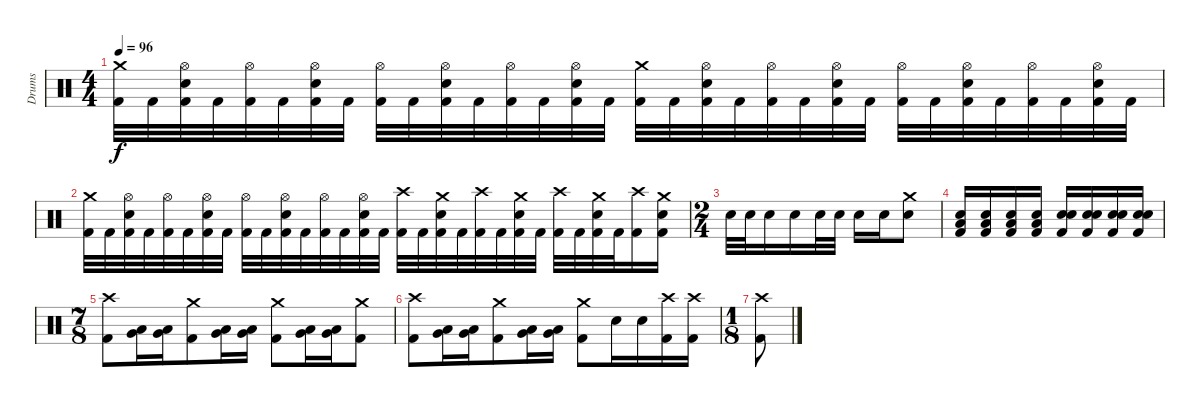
\track ("Drums" "Drums") {instrument percussion}
\staff {score}
\articulation defaults
\ts (4 4)
\tempo 96
\clef neutral
\ks c
("Crash medium (hit)" "Kick (hit) 2").32{dy f} "Kick (hit) 2".32 ("Hi-Hat (open)" "Electric Snare (hit)" "Kick (hit) 2").32 "Kick (hit) 2".32 ("Hi-Hat (open)" "Kick (hit) 2").32 "Kick (hit) 2".32 ("Hi-Hat (open)" "Electric Snare (hit)" "Kick (hit) 2").32 "Kick (hit) 2".32 ("Hi-Hat (open)" "Kick (hit) 2").32 "Kick (hit) 2".32 ("Hi-Hat (open)" "Electric Snare (hit)" "Kick (hit) 2").32 "Kick (hit) 2".32 ("Hi-Hat (open)" "Kick (hit) 2").32 "Kick (hit) 2".32 ("Hi-Hat (open)" "Electric Snare (hit)" "Kick (hit) 2").32 "Kick (hit) 2".32 ("Crash medium (hit)" "Kick (hit) 2").32 "Kick (hit) 2".32 ("Hi-Hat (open)" "Electric Snare (hit)" "Kick (hit) 2").32 "Kick (hit) 2".32 ("Hi-Hat (open)" "Kick (hit) 2").32 "Kick (hit) 2".32 ("Hi-Hat (open)" "Electric Snare (hit)" "Kick (hit) 2").32 "Kick (hit) 2".32 ("Hi-Hat (open)" "Kick (hit) 2").32 "Kick (hit) 2".32 ("Hi-Hat (open)" "Electric Snare (hit)" "Kick (hit) 2").32 "Kick (hit) 2".32 ("Hi-Hat (open)" "Kick (hit) 2").32 "Kick (hit) 2".32 ("Hi-Hat (open)" "Electric Snare (hit)" "Kick (hit) 2").32 "Kick (hit) 2".32 |
("Crash medium (hit)" "Kick (hit) 2").32 "Kick (hit) 2".32 ("Hi-Hat (open)" "Electric Snare (hit)" "Kick (hit) 2").32 "Kick (hit) 2".32 ("Hi-Hat (open)" "Kick (hit) 2").32 "Kick (hit) 2".32 ("Hi-Hat (open)" "Electric Snare (hit)" "Kick (hit) 2").32 "Kick (hit) 2".32 ("Hi-Hat (open)" "Kick (hit) 2").32 "Kick (hit) 2".32 ("Hi-Hat (open)" "Electric Snare (hit)" "Kick (hit) 2").32 "Kick (hit) 2".32 ("Hi-Hat (open)" "Kick (hit) 2").32 "Kick (hit) 2".32 ("Hi-Hat (open)" "Electric Snare (hit)" "Kick (hit) 2").32 "Kick (hit) 2".32 ("Crash high (hit)" "Kick (hit) 2").32 "Kick (hit) 2".32 ("Crash medium (hit)" "Electric Snare (hit)" "Kick (hit) 2").32 "Kick (hit) 2".32 ("Crash high (hit)" "Kick (hit) 2").32 "Kick (hit) 2".32 ("Crash medium (hit)" "Electric Snare (hit)" "Kick (hit) 2").32 "Kick (hit) 2".32 ("Crash high (hit)" "Kick (hit) 2").32 "Kick (hit) 2".32 ("Crash medium (hit)" "Electric Snare (hit)" "Kick (hit) 2").32 "Kick (hit) 2".32 ("Crash high (hit)" "Kick (hit) 2").16 ("Crash medium (hit)" "Electric Snare (hit)" "Kick (hit) 2").16 |
\ts (2 4)
"Electric Snare (hit)".32 "Electric Snare (hit)".32 "Electric Snare (hit)".16 "Electric Snare (hit)".16 "Electric Snare (hit)".32 "Electric Snare (hit)".32 "Electric Snare (hit)".16 "Electric Snare (hit)".16 ("Crash medium (hit)" "Electric Snare (hit)").8 |
("Low Floor Tom (hit)" "Electric Snare (hit)" "Kick (hit) 2").16 ("Low Floor Tom (hit)" "Electric Snare (hit)" "Kick (hit) 2").16 ("Low Floor Tom (hit)" "Electric Snare (hit)" "Kick (hit) 2").16 ("Low Floor Tom (hit)" "Electric Snare (hit)" "Kick (hit) 2").16 ("Electric Snare (hit)" "Electric Snare (hit)" "Kick (hit) 2").16 ("Electric Snare (hit)" "Electric Snare (hit)" "Kick (hit) 2").16 ("Electric Snare (hit)" "Electric Snare (hit)" "Kick (hit) 2").16 ("Electric Snare (hit)" "Electric Snare (hit)" "Kick (hit) 2").16 |
\ts (7 8)
("Crash high (hit)" "Kick (hit) 2").8 ("Low Tom (hit)" "Very Low Tom (hit)").16{bd 30} ("Low Tom (hit)" "Very Low Tom (hit)").16{bd 30} ("Crash medium (hit)" "Kick (hit) 2").8 ("Low Tom (hit)" "Very Low Tom (hit)").16{bd 30} ("Low Tom (hit)" "Very Low Tom (hit)").16{bd 30} ("Crash medium (hit)" "Kick (hit) 2").8 ("Low Tom (hit)" "Very Low Tom (hit)").16{bd 30} ("Low Tom (hit)" "Very Low Tom (hit)").16{bd 30} ("Crash medium (hit)" "Kick (hit) 2").8 |
("Crash high (hit)" "Kick (hit) 2").8 ("Low Tom (hit)" "Very Low Tom (hit)").16{bd 30} ("Low Tom (hit)" "Very Low Tom (hit)").16{bd 30} ("Crash medium (hit)" "Kick (hit) 2").8 ("Low Tom (hit)" "Very Low Tom (hit)").16{bd 30} ("Low Tom (hit)" "Very Low Tom (hit)").16{bd 30} ("Crash medium (hit)" "Kick (hit) 2").8 "Electric Snare (hit)".16 "Electric Snare (hit)".16 ("Crash high (hit)" "Kick (hit) 2").16 ("Crash high (hit)" "Kick (hit) 2").16 |
\ts (1 8)
("Crash high (hit)" "Kick (hit) 2").8
